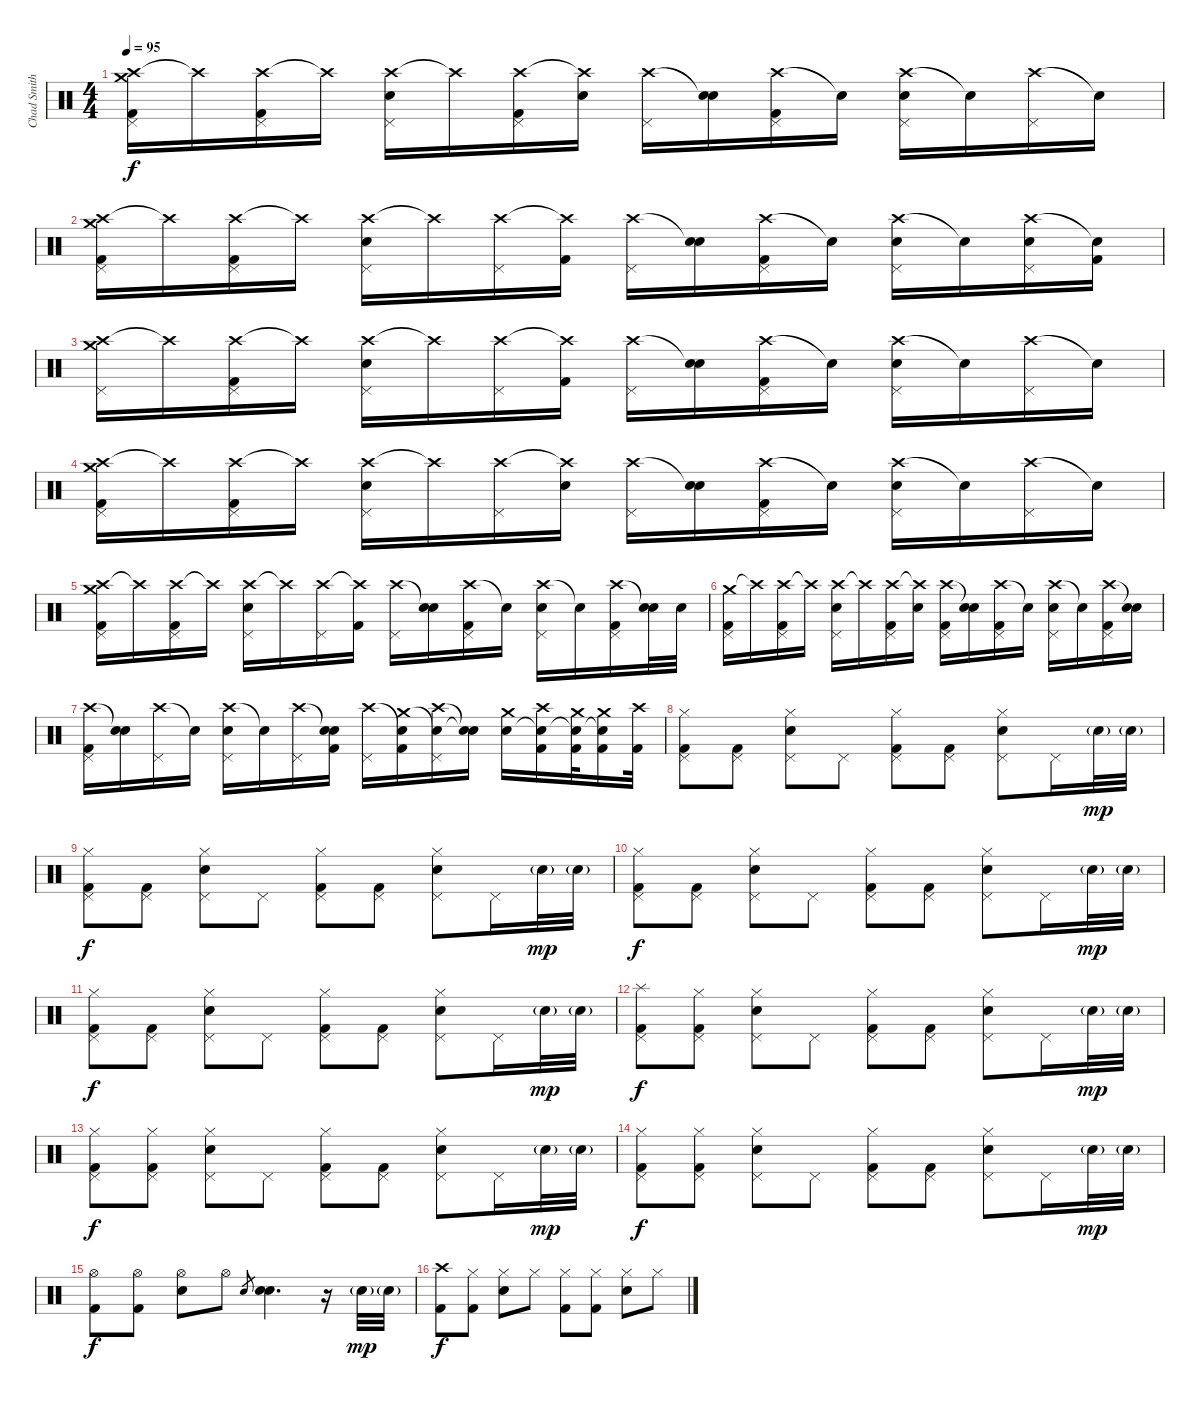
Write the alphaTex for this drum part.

\track ("Chad Smith" "Chad Smith") {instrument percussion}
\staff {score}
\articulation defaults
\ts (4 4)
\tempo 95
\clef neutral
\ks c
("Crash high (hit)" "Crash medium (hit)" "Pedal Hi-Hat (hit)" "Kick (hit) 2").16{dy f} "Crash high (hit)"{t}.16 ("Crash high (hit)" "Pedal Hi-Hat (hit)" "Kick (hit) 2").16 "Crash high (hit)"{t}.16 ("Crash high (hit)" "Snare (hit) 2" "Pedal Hi-Hat (hit)").16 "Crash high (hit)"{t}.16 ("Crash high (hit)" "Pedal Hi-Hat (hit)" "Kick (hit) 2").16 ("Crash high (hit)"{t} "Snare (hit) 2").16 ("Crash high (hit)" "Pedal Hi-Hat (hit)").16 ("Snare (hit)"{t} "Snare (hit) 2").16 ("Crash high (hit)" "Pedal Hi-Hat (hit)" "Kick (hit) 2").16 "Snare (hit)"{t}.16 ("Crash high (hit)" "Snare (hit) 2" "Pedal Hi-Hat (hit)").16 "Snare (hit)"{t}.16 ("Crash high (hit)" "Pedal Hi-Hat (hit)").16 "Snare (hit)"{t}.16 |
("Crash high (hit)" "Crash medium (hit)" "Pedal Hi-Hat (hit)" "Kick (hit) 2").16 "Crash high (hit)"{t}.16 ("Crash high (hit)" "Pedal Hi-Hat (hit)" "Kick (hit) 2").16 "Crash high (hit)"{t}.16 ("Crash high (hit)" "Snare (hit) 2" "Pedal Hi-Hat (hit)").16 "Crash high (hit)"{t}.16 ("Crash high (hit)" "Pedal Hi-Hat (hit)").16 ("Crash high (hit)"{t} "Kick (hit) 2").16 ("Crash high (hit)" "Pedal Hi-Hat (hit)").16 ("Snare (hit)"{t} "Snare (hit) 2").16 ("Crash high (hit)" "Pedal Hi-Hat (hit)" "Kick (hit) 2").16 "Snare (hit)"{t}.16 ("Crash high (hit)" "Snare (hit) 2" "Pedal Hi-Hat (hit)").16 "Snare (hit)"{t}.16 ("Crash high (hit)" "Snare (hit) 2" "Pedal Hi-Hat (hit)").16 ("Snare (hit)"{t} "Kick (hit) 2").16 |
("Crash high (hit)" "Crash medium (hit)" "Pedal Hi-Hat (hit)").16 "Crash high (hit)"{t}.16 ("Crash high (hit)" "Pedal Hi-Hat (hit)" "Kick (hit) 2").16 "Crash high (hit)"{t}.16 ("Crash high (hit)" "Snare (hit) 2" "Pedal Hi-Hat (hit)").16 "Crash high (hit)"{t}.16 ("Crash high (hit)" "Pedal Hi-Hat (hit)").16 ("Crash high (hit)"{t} "Kick (hit) 2").16 ("Crash high (hit)" "Pedal Hi-Hat (hit)").16 ("Snare (hit)"{t} "Snare (hit) 2").16 ("Crash high (hit)" "Pedal Hi-Hat (hit)" "Kick (hit) 2").16 "Snare (hit)"{t}.16 ("Crash high (hit)" "Snare (hit) 2" "Pedal Hi-Hat (hit)").16 "Snare (hit)"{t}.16 ("Crash high (hit)" "Pedal Hi-Hat (hit)").16 "Snare (hit)"{t}.16 |
("Crash high (hit)" "Crash medium (hit)" "Pedal Hi-Hat (hit)" "Kick (hit) 2").16 "Crash high (hit)"{t}.16 ("Crash high (hit)" "Pedal Hi-Hat (hit)" "Kick (hit) 2").16 "Crash high (hit)"{t}.16 ("Crash high (hit)" "Snare (hit) 2" "Pedal Hi-Hat (hit)").16 "Crash high (hit)"{t}.16 ("Crash high (hit)" "Pedal Hi-Hat (hit)").16 ("Crash high (hit)"{t} "Snare (hit) 2").16 ("Crash high (hit)" "Pedal Hi-Hat (hit)").16 ("Snare (hit)"{t} "Snare (hit) 2").16 ("Crash high (hit)" "Pedal Hi-Hat (hit)" "Kick (hit) 2").16 "Snare (hit)"{t}.16 ("Crash high (hit)" "Snare (hit) 2" "Pedal Hi-Hat (hit)").16 "Snare (hit)"{t}.16 ("Crash high (hit)" "Pedal Hi-Hat (hit)").16 "Snare (hit)"{t}.16 |
("Crash high (hit)" "Crash medium (hit)" "Pedal Hi-Hat (hit)" "Kick (hit) 2").16 "Crash high (hit)"{t}.16 ("Crash high (hit)" "Pedal Hi-Hat (hit)" "Kick (hit) 2").16 "Crash high (hit)"{t}.16 ("Crash high (hit)" "Snare (hit) 2" "Pedal Hi-Hat (hit)").16 "Crash high (hit)"{t}.16 ("Crash high (hit)" "Pedal Hi-Hat (hit)").16 ("Crash high (hit)"{t} "Kick (hit) 2").16 ("Crash high (hit)" "Pedal Hi-Hat (hit)").16 ("Snare (hit)"{t} "Snare (hit) 2").16 ("Crash high (hit)" "Pedal Hi-Hat (hit)" "Kick (hit) 2").16 "Snare (hit)"{t}.16 ("Crash high (hit)" "Snare (hit) 2" "Pedal Hi-Hat (hit)").16 "Snare (hit)"{t}.16 ("Crash high (hit)" "Pedal Hi-Hat (hit)" "Kick (hit) 2").16 ("Snare (hit)"{t} "Snare (hit) 2").32 "Snare (hit) 2".32 |
("Crash medium (hit)" "Pedal Hi-Hat (hit)" "Kick (hit) 2").16 "Crash high (hit)"{t}.16 ("Crash high (hit)" "Pedal Hi-Hat (hit)" "Kick (hit) 2").16 "Crash high (hit)"{t}.16 ("Crash high (hit)" "Snare (hit) 2" "Pedal Hi-Hat (hit)").16 "Crash high (hit)"{t}.16 ("Crash high (hit)" "Pedal Hi-Hat (hit)" "Kick (hit) 2").16 ("Crash high (hit)"{t} "Snare (hit) 2").16 ("Crash high (hit)" "Pedal Hi-Hat (hit)" "Kick (hit) 2").16 ("Snare (hit)"{t} "Snare (hit) 2").16 ("Crash high (hit)" "Pedal Hi-Hat (hit)" "Kick (hit) 2").16 "Snare (hit)"{t}.16 ("Crash high (hit)" "Snare (hit) 2" "Pedal Hi-Hat (hit)").16 "Snare (hit)"{t}.16 ("Crash high (hit)" "Pedal Hi-Hat (hit)" "Kick (hit) 2").16 ("Snare (hit)"{t} "Snare (hit) 2").16 |
("Crash high (hit)" "Pedal Hi-Hat (hit)" "Kick (hit) 2").16 ("Snare (hit)"{t} "Snare (hit) 2").16 ("Crash high (hit)" "Pedal Hi-Hat (hit)").16 "Snare (hit)"{t}.16 ("Crash high (hit)" "Snare (hit) 2" "Pedal Hi-Hat (hit)").16 "Snare (hit)"{t}.16 ("Crash high (hit)" "Pedal Hi-Hat (hit)").16 ("Snare (hit)"{t} "Snare (hit) 2" "Kick (hit) 2").16 ("Crash high (hit)" "Pedal Hi-Hat (hit)").16 ("Snare (hit)"{t} "Crash medium (hit)" "Kick (hit) 2").16 ("Crash high (hit)" "Snare (hit)"{t} "Pedal Hi-Hat (hit)").16 ("Snare (hit)"{t} "Snare (hit)"{t}).16 ("Crash medium (hit)" "Snare (hit) 2").16 ("Crash high (hit)" "Snare (hit)"{t} "Kick (hit) 2").16 ("Crash medium (hit)" "Snare (hit)"{t} "Kick (hit) 2").32 ("Crash medium (hit)" "Snare (hit)"{t} "Kick (hit) 2").16 ("Crash high (hit)" "Kick (hit) 2").32 |
("Hi-Hat (closed)" "Pedal Hi-Hat (hit)" "Kick (hit) 2").8 ("Pedal Hi-Hat (hit)" "Kick (hit) 2").8 ("Hi-Hat (closed)" "Snare (hit) 2" "Pedal Hi-Hat (hit)").8 "Pedal Hi-Hat (hit)".8 ("Hi-Hat (closed)" "Pedal Hi-Hat (hit)" "Kick (hit) 2").8 ("Pedal Hi-Hat (hit)" "Kick (hit) 2").8 ("Hi-Hat (closed)" "Snare (hit) 2" "Pedal Hi-Hat (hit)").8 "Pedal Hi-Hat (hit)".16 "Snare (hit) 2"{g}.32{dy mp} "Snare (hit) 2"{g}.32 |
("Hi-Hat (closed)" "Pedal Hi-Hat (hit)" "Kick (hit) 2").8{dy f} ("Pedal Hi-Hat (hit)" "Kick (hit) 2").8 ("Hi-Hat (closed)" "Snare (hit) 2" "Pedal Hi-Hat (hit)").8 "Pedal Hi-Hat (hit)".8 ("Hi-Hat (closed)" "Pedal Hi-Hat (hit)" "Kick (hit) 2").8 ("Pedal Hi-Hat (hit)" "Kick (hit) 2").8 ("Hi-Hat (closed)" "Snare (hit) 2" "Pedal Hi-Hat (hit)").8 "Pedal Hi-Hat (hit)".16 "Snare (hit) 2"{g}.32{dy mp} "Snare (hit) 2"{g}.32 |
("Hi-Hat (closed)" "Pedal Hi-Hat (hit)" "Kick (hit) 2").8{dy f} ("Pedal Hi-Hat (hit)" "Kick (hit) 2").8 ("Hi-Hat (closed)" "Snare (hit) 2" "Pedal Hi-Hat (hit)").8 "Pedal Hi-Hat (hit)".8 ("Hi-Hat (closed)" "Pedal Hi-Hat (hit)" "Kick (hit) 2").8 ("Pedal Hi-Hat (hit)" "Kick (hit) 2").8 ("Hi-Hat (closed)" "Snare (hit) 2" "Pedal Hi-Hat (hit)").8 "Pedal Hi-Hat (hit)".16 "Snare (hit) 2"{g}.32{dy mp} "Snare (hit) 2"{g}.32 |
("Hi-Hat (closed)" "Pedal Hi-Hat (hit)" "Kick (hit) 2").8{dy f} ("Pedal Hi-Hat (hit)" "Kick (hit) 2").8 ("Hi-Hat (closed)" "Snare (hit) 2" "Pedal Hi-Hat (hit)").8 "Pedal Hi-Hat (hit)".8 ("Hi-Hat (closed)" "Pedal Hi-Hat (hit)" "Kick (hit) 2").8 ("Pedal Hi-Hat (hit)" "Kick (hit) 2").8 ("Hi-Hat (closed)" "Snare (hit) 2" "Pedal Hi-Hat (hit)").8 "Pedal Hi-Hat (hit)".16 "Snare (hit) 2"{g}.32{dy mp} "Snare (hit) 2"{g}.32 |
("Splash (hit)" "Pedal Hi-Hat (hit)" "Kick (hit) 2").8{dy f} ("Hi-Hat (closed)" "Pedal Hi-Hat (hit)" "Kick (hit) 2").8 ("Hi-Hat (closed)" "Snare (hit) 2" "Pedal Hi-Hat (hit)").8 "Pedal Hi-Hat (hit)".8 ("Hi-Hat (closed)" "Pedal Hi-Hat (hit)" "Kick (hit) 2").8 ("Pedal Hi-Hat (hit)" "Kick (hit) 2").8 ("Hi-Hat (closed)" "Snare (hit) 2" "Pedal Hi-Hat (hit)").8 "Pedal Hi-Hat (hit)".16 "Snare (hit) 2"{g}.32{dy mp} "Snare (hit) 2"{g}.32 |
("Hi-Hat (closed)" "Pedal Hi-Hat (hit)" "Kick (hit) 2").8{dy f} ("Hi-Hat (closed)" "Pedal Hi-Hat (hit)" "Kick (hit) 2").8 ("Hi-Hat (closed)" "Snare (hit) 2" "Pedal Hi-Hat (hit)").8 "Pedal Hi-Hat (hit)".8 ("Hi-Hat (closed)" "Pedal Hi-Hat (hit)" "Kick (hit) 2").8 ("Pedal Hi-Hat (hit)" "Kick (hit) 2").8 ("Hi-Hat (closed)" "Snare (hit) 2" "Pedal Hi-Hat (hit)").8 "Pedal Hi-Hat (hit)".16 "Snare (hit) 2"{g}.32{dy mp} "Snare (hit) 2"{g}.32 |
("Hi-Hat (closed)" "Pedal Hi-Hat (hit)" "Kick (hit) 2").8{dy f} ("Hi-Hat (closed)" "Pedal Hi-Hat (hit)" "Kick (hit) 2").8 ("Hi-Hat (closed)" "Snare (hit) 2" "Pedal Hi-Hat (hit)").8 "Pedal Hi-Hat (hit)".8 ("Hi-Hat (closed)" "Pedal Hi-Hat (hit)" "Kick (hit) 2").8 ("Pedal Hi-Hat (hit)" "Kick (hit) 2").8 ("Hi-Hat (closed)" "Snare (hit) 2" "Pedal Hi-Hat (hit)").8 "Pedal Hi-Hat (hit)".16 "Snare (hit) 2"{g}.32{dy mp} "Snare (hit) 2"{g}.32 |
("Hi-Hat (open)" "Kick (hit) 2").8{dy f} ("Hi-Hat (open)" "Kick (hit) 2").8 ("Hi-Hat (open)" "Snare (hit) 2").8 "Hi-Hat (open)".8 "Snare (hit) 2".8{gr} ("Snare (hit) 2" "Snare (hit) 2").4{d} r.16 "Snare (hit) 2"{g}.32{dy mp} "Snare (hit) 2"{g}.32 |
("Crash high (hit)" "Kick (hit) 2").8{dy f} ("Hi-Hat (closed)" "Kick (hit) 2").8 ("Hi-Hat (closed)" "Snare (hit) 2").8 "Hi-Hat (closed)".8 ("Hi-Hat (closed)" "Kick (hit) 2").8 ("Hi-Hat (closed)" "Kick (hit) 2").8 ("Hi-Hat (closed)" "Snare (hit) 2").8 "Hi-Hat (closed)".8
